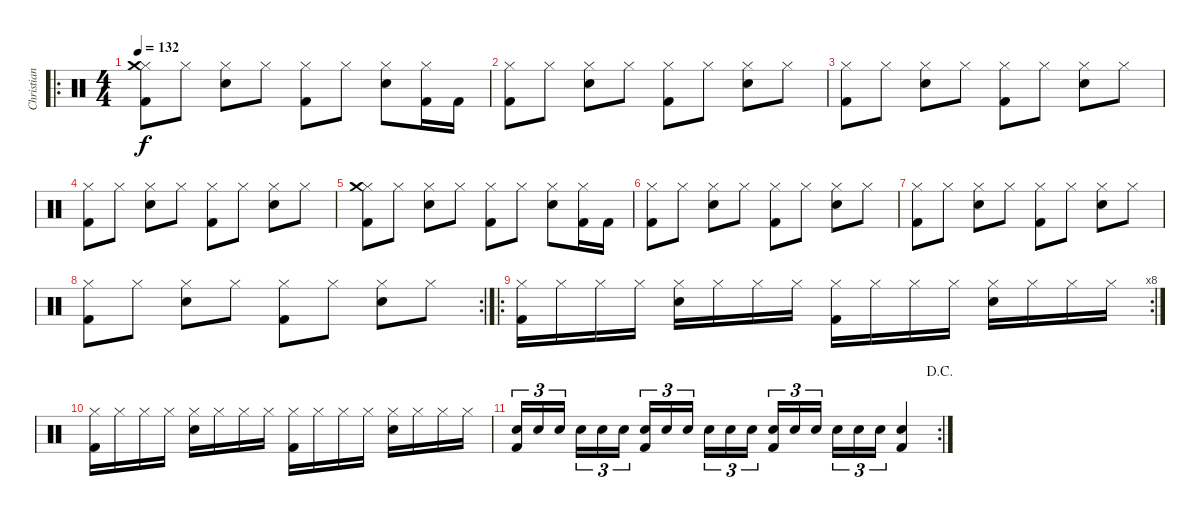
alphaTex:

\track ("Christian Paredes" "Christian ") {instrument percussion}
\staff {score}
\articulation defaults
\ro
\ts (4 4)
\tempo 132
\clef neutral
\ks c
("Hi-Hat (closed)" "Crash medium (hit)" "Kick (hit) 2").8{dy f} "Hi-Hat (closed)".8 ("Hi-Hat (closed)" "Electric Snare (hit)").8 "Hi-Hat (closed)".8 ("Hi-Hat (closed)" "Kick (hit) 2").8 "Hi-Hat (closed)".8 ("Hi-Hat (closed)" "Electric Snare (hit)").8 ("Hi-Hat (closed)" "Kick (hit) 2").16 "Kick (hit) 2".16 |
("Hi-Hat (closed)" "Kick (hit) 2").8 "Hi-Hat (closed)".8 ("Hi-Hat (closed)" "Electric Snare (hit)").8 "Hi-Hat (closed)".8 ("Hi-Hat (closed)" "Kick (hit) 2").8 "Hi-Hat (closed)".8 ("Hi-Hat (closed)" "Electric Snare (hit)").8 "Hi-Hat (closed)".8 |
("Hi-Hat (closed)" "Kick (hit) 2").8 "Hi-Hat (closed)".8 ("Hi-Hat (closed)" "Electric Snare (hit)").8 "Hi-Hat (closed)".8 ("Hi-Hat (closed)" "Kick (hit) 2").8 "Hi-Hat (closed)".8 ("Hi-Hat (closed)" "Electric Snare (hit)").8 "Hi-Hat (closed)".8 |
("Hi-Hat (closed)" "Kick (hit) 2").8 "Hi-Hat (closed)".8 ("Hi-Hat (closed)" "Electric Snare (hit)").8 "Hi-Hat (closed)".8 ("Hi-Hat (closed)" "Kick (hit) 2").8 "Hi-Hat (closed)".8 ("Hi-Hat (closed)" "Electric Snare (hit)").8 "Hi-Hat (closed)".8 |
("Hi-Hat (closed)" "Crash medium (hit)" "Kick (hit) 2").8 "Hi-Hat (closed)".8 ("Hi-Hat (closed)" "Electric Snare (hit)").8 "Hi-Hat (closed)".8 ("Hi-Hat (closed)" "Kick (hit) 2").8 "Hi-Hat (closed)".8 ("Hi-Hat (closed)" "Electric Snare (hit)").8 ("Hi-Hat (closed)" "Kick (hit) 2").16 "Kick (hit) 2".16 |
("Hi-Hat (closed)" "Kick (hit) 2").8 "Hi-Hat (closed)".8 ("Hi-Hat (closed)" "Electric Snare (hit)").8 "Hi-Hat (closed)".8 ("Hi-Hat (closed)" "Kick (hit) 2").8 "Hi-Hat (closed)".8 ("Hi-Hat (closed)" "Electric Snare (hit)").8 "Hi-Hat (closed)".8 |
("Hi-Hat (closed)" "Kick (hit) 2").8 "Hi-Hat (closed)".8 ("Hi-Hat (closed)" "Electric Snare (hit)").8 "Hi-Hat (closed)".8 ("Hi-Hat (closed)" "Kick (hit) 2").8 "Hi-Hat (closed)".8 ("Hi-Hat (closed)" "Electric Snare (hit)").8 "Hi-Hat (closed)".8 |
\rc 2
("Hi-Hat (closed)" "Kick (hit) 2").8 "Hi-Hat (closed)".8 ("Hi-Hat (closed)" "Electric Snare (hit)").8 "Hi-Hat (closed)".8 ("Hi-Hat (closed)" "Kick (hit) 2").8 "Hi-Hat (closed)".8 ("Hi-Hat (closed)" "Electric Snare (hit)").8 "Hi-Hat (closed)".8 |
\ro
\rc 8
("Hi-Hat (closed)" "Kick (hit) 2").16 "Hi-Hat (closed)".16 "Hi-Hat (closed)".16 "Hi-Hat (closed)".16 ("Hi-Hat (closed)" "Snare (hit) 2").16 "Hi-Hat (closed)".16 "Hi-Hat (closed)".16 "Hi-Hat (closed)".16 ("Hi-Hat (closed)" "Kick (hit) 2").16 "Hi-Hat (closed)".16 "Hi-Hat (closed)".16 "Hi-Hat (closed)".16 ("Hi-Hat (closed)" "Snare (hit) 2").16 "Hi-Hat (closed)".16 "Hi-Hat (closed)".16 "Hi-Hat (closed)".16 |
("Hi-Hat (closed)" "Kick (hit) 2").16 "Hi-Hat (closed)".16 "Hi-Hat (closed)".16 "Hi-Hat (closed)".16 ("Hi-Hat (closed)" "Snare (hit) 2").16 "Hi-Hat (closed)".16 "Hi-Hat (closed)".16 "Hi-Hat (closed)".16 ("Hi-Hat (closed)" "Kick (hit) 2").16 "Hi-Hat (closed)".16 "Hi-Hat (closed)".16 "Hi-Hat (closed)".16 ("Hi-Hat (closed)" "Snare (hit) 2").16 "Hi-Hat (closed)".16 "Hi-Hat (closed)".16 "Hi-Hat (closed)".16 |
\rc 2
\jump dacapo
("Electric Snare (hit)" "Kick (hit) 2").16{tu (3 2)} "Electric Snare (hit)".16{tu (3 2)} "Electric Snare (hit)".16{tu (3 2) beam splitsecondary} "Electric Snare (hit)".16{tu (3 2)} "Electric Snare (hit)".16{tu (3 2)} "Electric Snare (hit)".16{tu (3 2)} ("Electric Snare (hit)" "Kick (hit) 2").16{tu (3 2)} "Electric Snare (hit)".16{tu (3 2)} "Electric Snare (hit)".16{tu (3 2) beam splitsecondary} "Electric Snare (hit)".16{tu (3 2)} "Electric Snare (hit)".16{tu (3 2)} "Electric Snare (hit)".16{tu (3 2)} ("Electric Snare (hit)" "Kick (hit) 2").16{tu (3 2)} "Electric Snare (hit)".16{tu (3 2)} "Electric Snare (hit)".16{tu (3 2) beam splitsecondary} "Electric Snare (hit)".16{tu (3 2)} "Electric Snare (hit)".16{tu (3 2)} "Electric Snare (hit)".16{tu (3 2)} ("Electric Snare (hit)" "Kick (hit) 2").4
